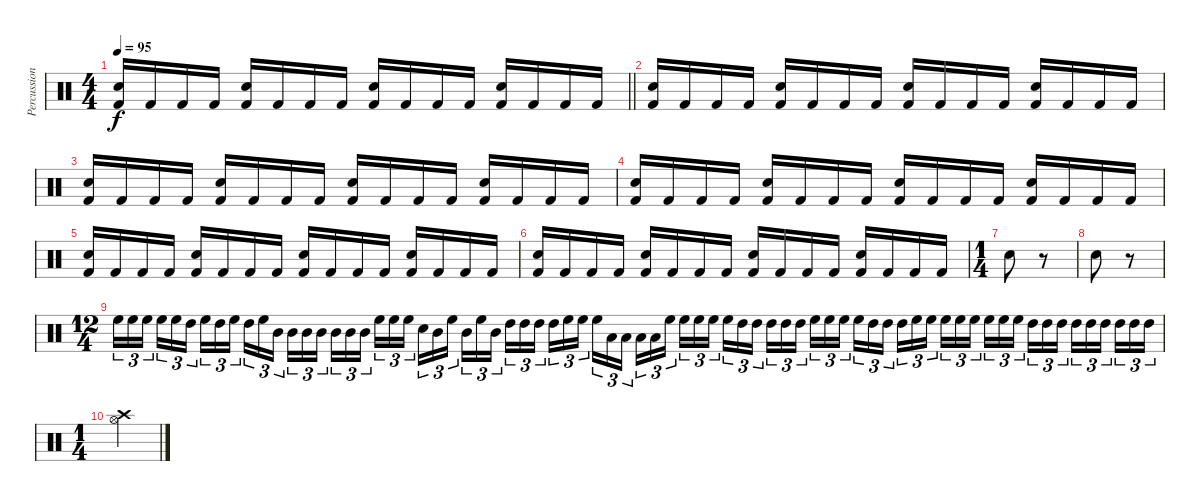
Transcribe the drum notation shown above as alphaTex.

\track ("Percussioni" "Percussion") {instrument percussion}
\staff {score}
\articulation defaults
\ts (4 4)
\tempo 95
\clef neutral
\barLineRight lightlight
\ks c
("Snare (hit) 2" "Kick (hit) 2").16{dy f} "Kick (hit) 2".16 "Kick (hit) 2".16 "Kick (hit) 2".16 ("Snare (hit) 2" "Kick (hit) 2").16 "Kick (hit) 2".16 "Kick (hit) 2".16 "Kick (hit) 2".16 ("Snare (hit) 2" "Kick (hit) 2").16 "Kick (hit) 2".16 "Kick (hit) 2".16 "Kick (hit) 2".16 ("Snare (hit) 2" "Kick (hit) 2").16 "Kick (hit) 2".16 "Kick (hit) 2".16 "Kick (hit) 2".16 |
("Snare (hit) 2" "Kick (hit) 2").16 "Kick (hit) 2".16 "Kick (hit) 2".16 "Kick (hit) 2".16 ("Snare (hit) 2" "Kick (hit) 2").16 "Kick (hit) 2".16 "Kick (hit) 2".16 "Kick (hit) 2".16 ("Snare (hit) 2" "Kick (hit) 2").16 "Kick (hit) 2".16 "Kick (hit) 2".16 "Kick (hit) 2".16 ("Snare (hit) 2" "Kick (hit) 2").16 "Kick (hit) 2".16 "Kick (hit) 2".16 "Kick (hit) 2".16 |
("Snare (hit) 2" "Kick (hit) 2").16 "Kick (hit) 2".16 "Kick (hit) 2".16 "Kick (hit) 2".16 ("Snare (hit) 2" "Kick (hit) 2").16 "Kick (hit) 2".16 "Kick (hit) 2".16 "Kick (hit) 2".16 ("Snare (hit) 2" "Kick (hit) 2").16 "Kick (hit) 2".16 "Kick (hit) 2".16 "Kick (hit) 2".16 ("Snare (hit) 2" "Kick (hit) 2").16 "Kick (hit) 2".16 "Kick (hit) 2".16 "Kick (hit) 2".16 |
("Snare (hit) 2" "Kick (hit) 2").16 "Kick (hit) 2".16 "Kick (hit) 2".16 "Kick (hit) 2".16 ("Snare (hit) 2" "Kick (hit) 2").16 "Kick (hit) 2".16 "Kick (hit) 2".16 "Kick (hit) 2".16 ("Snare (hit) 2" "Kick (hit) 2").16 "Kick (hit) 2".16 "Kick (hit) 2".16 "Kick (hit) 2".16 ("Snare (hit) 2" "Kick (hit) 2").16 "Kick (hit) 2".16 "Kick (hit) 2".16 "Kick (hit) 2".16 |
("Snare (hit) 2" "Kick (hit) 2").16 "Kick (hit) 2".16 "Kick (hit) 2".16 "Kick (hit) 2".16 ("Snare (hit) 2" "Kick (hit) 2").16 "Kick (hit) 2".16 "Kick (hit) 2".16 "Kick (hit) 2".16 ("Snare (hit) 2" "Kick (hit) 2").16 "Kick (hit) 2".16 "Kick (hit) 2".16 "Kick (hit) 2".16 ("Snare (hit) 2" "Kick (hit) 2").16 "Kick (hit) 2".16 "Kick (hit) 2".16 "Kick (hit) 2".16 |
("Snare (hit) 2" "Kick (hit) 2").16 "Kick (hit) 2".16 "Kick (hit) 2".16 "Kick (hit) 2".16 ("Snare (hit) 2" "Kick (hit) 2").16 "Kick (hit) 2".16 "Kick (hit) 2".16 "Kick (hit) 2".16 ("Snare (hit) 2" "Kick (hit) 2").16 "Kick (hit) 2".16 "Kick (hit) 2".16 "Kick (hit) 2".16 ("Snare (hit) 2" "Kick (hit) 2").16 "Kick (hit) 2".16 "Kick (hit) 2".16 "Kick (hit) 2".16 |
\ts (1 4)
"Snare (hit) 2".8 r.8 |
"Snare (hit) 2".8 r.8 |
\ts (12 4)
"High Floor Tom (hit)".16{tu (3 2)} "High Floor Tom (hit)".16{tu (3 2)} "High Floor Tom (hit)".16{tu (3 2) beam splitsecondary} "High Floor Tom (hit)".16{tu (3 2)} "High Floor Tom (hit)".16{tu (3 2)} "High Tom (hit)".16{tu (3 2) beam splitsecondary} "High Floor Tom (hit)".16{tu (3 2)} "High Tom (hit)".16{tu (3 2)} "High Floor Tom (hit)".16{tu (3 2) beam splitsecondary} "High Tom (hit)".16{tu (3 2)} "High Floor Tom (hit)".16{tu (3 2)} "Mid Tom (hit)".16{tu (3 2) beam splitsecondary} "Mid Tom (hit)".16{tu (3 2)} "Mid Tom (hit)".16{tu (3 2)} "Mid Tom (hit)".16{tu (3 2) beam splitsecondary} "Mid Tom (hit)".16{tu (3 2)} "Mid Tom (hit)".16{tu (3 2)} "Mid Tom (hit)".16{tu (3 2)} "High Floor Tom (hit)".16{tu (3 2)} "High Floor Tom (hit)".16{tu (3 2)} "High Floor Tom (hit)".16{tu (3 2) beam splitsecondary} "Snare (hit)".16{tu (3 2)} "Mid Tom (hit)".16{tu (3 2)} "High Floor Tom (hit)".16{tu (3 2) beam splitsecondary} "Mid Tom (hit)".16{tu (3 2)} "High Floor Tom (hit)".16{tu (3 2)} "Mid Tom (hit)".16{tu (3 2) beam splitsecondary} "High Tom (hit)".16{tu (3 2)} "High Tom (hit)".16{tu (3 2)} "High Tom (hit)".16{tu (3 2) beam splitsecondary} "High Tom (hit)".16{tu (3 2)} "High Floor Tom (hit)".16{tu (3 2)} "High Floor Tom (hit)".16{tu (3 2) beam splitsecondary} "High Floor Tom (hit)".16{tu (3 2)} "Low Tom (hit)".16{tu (3 2)} "Low Tom (hit)".16{tu (3 2)} "Low Tom (hit)".16{tu (3 2)} "Low Tom (hit)".16{tu (3 2)} "High Floor Tom (hit)".16{tu (3 2) beam splitsecondary} "High Floor Tom (hit)".16{tu (3 2)} "High Floor Tom (hit)".16{tu (3 2)} "High Floor Tom (hit)".16{tu (3 2) beam splitsecondary} "High Floor Tom (hit)".16{tu (3 2)} "High Tom (hit)".16{tu (3 2)} "High Tom (hit)".16{tu (3 2) beam splitsecondary} "High Tom (hit)".16{tu (3 2)} "High Tom (hit)".16{tu (3 2)} "High Tom (hit)".16{tu (3 2) beam splitsecondary} "High Floor Tom (hit)".16{tu (3 2)} "High Floor Tom (hit)".16{tu (3 2)} "High Floor Tom (hit)".16{tu (3 2) beam splitsecondary} "High Floor Tom (hit)".16{tu (3 2)} "High Tom (hit)".16{tu (3 2)} "High Tom (hit)".16{tu (3 2)} "High Tom (hit)".16{tu (3 2)} "High Floor Tom (hit)".16{tu (3 2)} "High Floor Tom (hit)".16{tu (3 2) beam splitsecondary} "High Floor Tom (hit)".16{tu (3 2)} "High Floor Tom (hit)".16{tu (3 2)} "High Floor Tom (hit)".16{tu (3 2) beam splitsecondary} "High Floor Tom (hit)".16{tu (3 2)} "High Floor Tom (hit)".16{tu (3 2)} "High Floor Tom (hit)".16{tu (3 2) beam splitsecondary} "High Tom (hit)".16{tu (3 2)} "High Tom (hit)".16{tu (3 2)} "High Tom (hit)".16{tu (3 2) beam splitsecondary} "High Tom (hit)".16{tu (3 2)} "High Tom (hit)".16{tu (3 2)} "High Tom (hit)".16{tu (3 2) beam splitsecondary} "High Tom (hit)".16{tu (3 2)} "High Tom (hit)".16{tu (3 2)} "High Tom (hit)".16{tu (3 2)} |
\ts (1 4)
("Crash high (hit)" "Hi-Hat (open)").4
